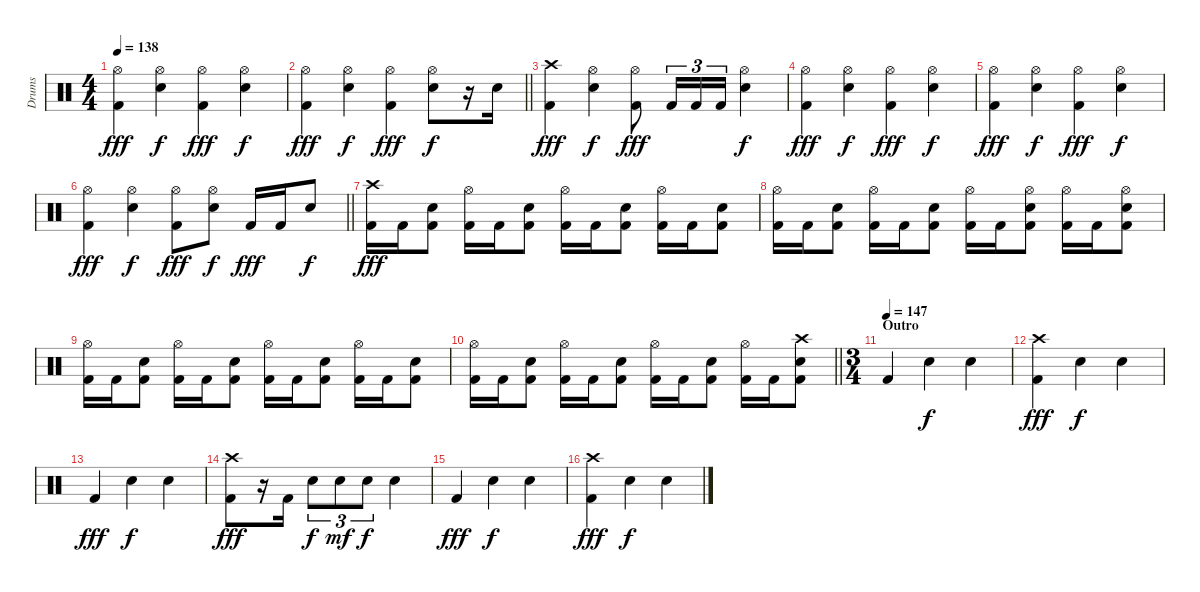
\track ("Drums" "Drums") {instrument percussion}
\staff {score}
\articulation defaults
\ts (4 4)
\tempo 138
\clef neutral
\ks c
("Hi-Hat (open)" "Kick (hit) 2").4{dy fff} ("Hi-Hat (open)" "Electric Snare (hit)").4{dy f} ("Hi-Hat (open)" "Kick (hit) 2").4{dy fff} ("Hi-Hat (open)" "Electric Snare (hit)").4{dy f} |
\barLineRight lightlight
("Hi-Hat (open)" "Kick (hit) 2").4{dy fff} ("Hi-Hat (open)" "Electric Snare (hit)").4{dy f} ("Hi-Hat (open)" "Kick (hit) 2").4{dy fff} ("Hi-Hat (open)" "Electric Snare (hit)").8{dy f} r.16 "Electric Snare (hit)".16 |
("Crash high (hit)" "Kick (hit) 2").4{dy fff} ("Hi-Hat (open)" "Electric Snare (hit)").4{dy f} ("Hi-Hat (open)" "Kick (hit) 2").8{dy fff} "Kick (hit) 2".16{tu (3 2)} "Kick (hit) 2".16{tu (3 2)} "Kick (hit) 2".16{tu (3 2)} ("Hi-Hat (open)" "Electric Snare (hit)").4{dy f} |
("Hi-Hat (open)" "Kick (hit) 2").4{dy fff} ("Hi-Hat (open)" "Electric Snare (hit)").4{dy f} ("Hi-Hat (open)" "Kick (hit) 2").4{dy fff} ("Hi-Hat (open)" "Electric Snare (hit)").4{dy f} |
("Hi-Hat (open)" "Kick (hit) 2").4{dy fff} ("Hi-Hat (open)" "Electric Snare (hit)").4{dy f} ("Hi-Hat (open)" "Kick (hit) 2").4{dy fff} ("Hi-Hat (open)" "Electric Snare (hit)").4{dy f} |
\barLineRight lightlight
("Hi-Hat (open)" "Kick (hit) 2").4{dy fff} ("Hi-Hat (open)" "Electric Snare (hit)").4{dy f} ("Hi-Hat (open)" "Kick (hit) 2").8{dy fff} ("Hi-Hat (open)" "Electric Snare (hit)").8{dy f} "Kick (hit) 2".16{dy fff} "Kick (hit) 2".16 "Electric Snare (hit)".8{dy f} |
("Crash high (hit)" "Kick (hit) 2").16{dy fff} "Kick (hit) 2".16 ("Electric Snare (hit)" "Kick (hit) 2").8 ("Hi-Hat (open)" "Kick (hit) 2").16 "Kick (hit) 2".16 ("Electric Snare (hit)" "Kick (hit) 2").8 ("Hi-Hat (open)" "Kick (hit) 2").16 "Kick (hit) 2".16 ("Electric Snare (hit)" "Kick (hit) 2").8 ("Hi-Hat (open)" "Kick (hit) 2").16 "Kick (hit) 2".16 ("Electric Snare (hit)" "Kick (hit) 2").8 |
("Hi-Hat (open)" "Kick (hit) 2").16 "Kick (hit) 2".16 ("Electric Snare (hit)" "Kick (hit) 2").8 ("Hi-Hat (open)" "Kick (hit) 2").16 "Kick (hit) 2".16 ("Electric Snare (hit)" "Kick (hit) 2").8 ("Hi-Hat (open)" "Kick (hit) 2").16 "Kick (hit) 2".16 ("Hi-Hat (open)" "Electric Snare (hit)" "Kick (hit) 2").8 ("Hi-Hat (open)" "Kick (hit) 2").16 "Kick (hit) 2".16 ("Hi-Hat (open)" "Electric Snare (hit)" "Kick (hit) 2").8 |
("Hi-Hat (open)" "Kick (hit) 2").16 "Kick (hit) 2".16 ("Electric Snare (hit)" "Kick (hit) 2").8 ("Hi-Hat (open)" "Kick (hit) 2").16 "Kick (hit) 2".16 ("Electric Snare (hit)" "Kick (hit) 2").8 ("Hi-Hat (open)" "Kick (hit) 2").16 "Kick (hit) 2".16 ("Electric Snare (hit)" "Kick (hit) 2").8 ("Hi-Hat (open)" "Kick (hit) 2").16 "Kick (hit) 2".16 ("Electric Snare (hit)" "Kick (hit) 2").8 |
\barLineRight lightlight
("Hi-Hat (open)" "Kick (hit) 2").16 "Kick (hit) 2".16 ("Electric Snare (hit)" "Kick (hit) 2").8 ("Hi-Hat (open)" "Kick (hit) 2").16 "Kick (hit) 2".16 ("Electric Snare (hit)" "Kick (hit) 2").8 ("Hi-Hat (open)" "Kick (hit) 2").16 "Kick (hit) 2".16 ("Electric Snare (hit)" "Kick (hit) 2").8 ("Hi-Hat (open)" "Kick (hit) 2").16 "Kick (hit) 2".16 ("Crash high (hit)" "Electric Snare (hit)" "Kick (hit) 2").8 |
\ts (3 4)
\section ("" "Outro")
\tempo (147)
"Kick (hit) 2".4 "Electric Snare (hit)".4{dy f} "Electric Snare (hit)".4 |
("Crash high (hit)" "Kick (hit) 2").4{dy fff} "Electric Snare (hit)".4{dy f} "Electric Snare (hit)".4 |
"Kick (hit) 2".4{dy fff} "Electric Snare (hit)".4{dy f} "Electric Snare (hit)".4 |
("Crash high (hit)" "Kick (hit) 2").8{dy fff} r.16 "Kick (hit) 2".16 "Electric Snare (hit)".8{tu (3 2) dy f} "Electric Snare (hit)".8{tu (3 2) dy mf} "Electric Snare (hit)".8{tu (3 2) dy f} "Electric Snare (hit)".4 |
"Kick (hit) 2".4{dy fff} "Electric Snare (hit)".4{dy f} "Electric Snare (hit)".4 |
("Crash high (hit)" "Kick (hit) 2").4{dy fff} "Electric Snare (hit)".4{dy f} "Electric Snare (hit)".4
